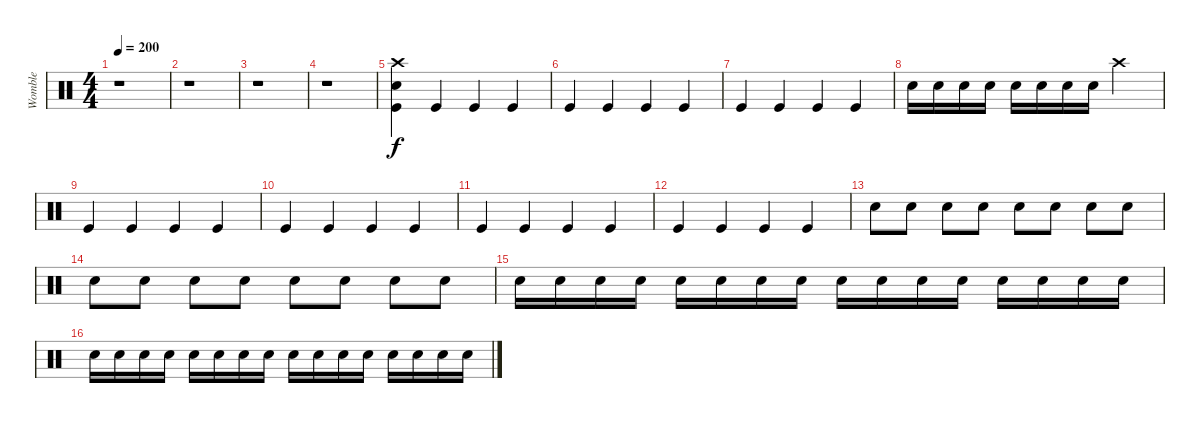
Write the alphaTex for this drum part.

\track ("Womble" "Womble") {instrument percussion}
\staff {score}
\articulation defaults
\ts (4 4)
\tempo 200
\clef neutral
\ks c
r.1{dy f} |
r.1 |
r.1 |
r.1 |
("Crash high (hit)" "Snare (hit) 2" "Kick (hit)").4 "Kick (hit)".4 "Kick (hit)".4 "Kick (hit)".4 |
"Kick (hit)".4 "Kick (hit)".4 "Kick (hit)".4 "Kick (hit)".4 |
"Kick (hit)".4 "Kick (hit)".4 "Kick (hit)".4 "Kick (hit)".4 |
"Snare (hit) 2".16 "Snare (hit) 2".16 "Snare (hit) 2".16 "Snare (hit) 2".16 "Snare (hit) 2".16 "Snare (hit) 2".16 "Snare (hit) 2".16 "Snare (hit) 2".16 "Crash high (hit)".2 |
"Kick (hit)".4 "Kick (hit)".4 "Kick (hit)".4 "Kick (hit)".4 |
"Kick (hit)".4 "Kick (hit)".4 "Kick (hit)".4 "Kick (hit)".4 |
"Kick (hit)".4 "Kick (hit)".4 "Kick (hit)".4 "Kick (hit)".4 |
"Kick (hit)".4 "Kick (hit)".4 "Kick (hit)".4 "Kick (hit)".4 |
"Snare (hit) 2".8 "Snare (hit) 2".8 "Snare (hit) 2".8 "Snare (hit) 2".8 "Snare (hit) 2".8 "Snare (hit) 2".8 "Snare (hit) 2".8 "Snare (hit) 2".8 |
"Snare (hit) 2".8 "Snare (hit) 2".8 "Snare (hit) 2".8 "Snare (hit) 2".8 "Snare (hit) 2".8 "Snare (hit) 2".8 "Snare (hit) 2".8 "Snare (hit) 2".8 |
"Snare (hit) 2".16 "Snare (hit) 2".16 "Snare (hit) 2".16 "Snare (hit) 2".16 "Snare (hit) 2".16 "Snare (hit) 2".16 "Snare (hit) 2".16 "Snare (hit) 2".16 "Snare (hit) 2".16 "Snare (hit) 2".16 "Snare (hit) 2".16 "Snare (hit) 2".16 "Snare (hit) 2".16 "Snare (hit) 2".16 "Snare (hit) 2".16 "Snare (hit) 2".16 |
"Snare (hit) 2".16 "Snare (hit) 2".16 "Snare (hit) 2".16 "Snare (hit) 2".16 "Snare (hit) 2".16 "Snare (hit) 2".16 "Snare (hit) 2".16 "Snare (hit) 2".16 "Snare (hit) 2".16 "Snare (hit) 2".16 "Snare (hit) 2".16 "Snare (hit) 2".16 "Snare (hit) 2".16 "Snare (hit) 2".16 "Snare (hit) 2".16 "Snare (hit) 2".16
